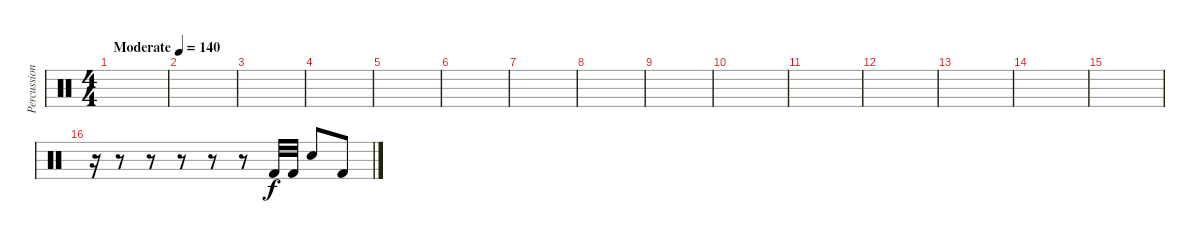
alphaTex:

\track ("Percussions" "Percussion") {instrument percussion}
\staff {score}
\articulation defaults
\ts (4 4)
\tempo (140 "Moderate")
\clef neutral
\ks c
|
|
|
|
|
|
|
|
|
|
|
|
|
|
|
r.16 r.8 r.8 r.8 r.8 r.8 "Kick (hit) 2".32 "Kick (hit) 2".32 "Electric Snare (hit)".8 "Kick (hit) 2".8
